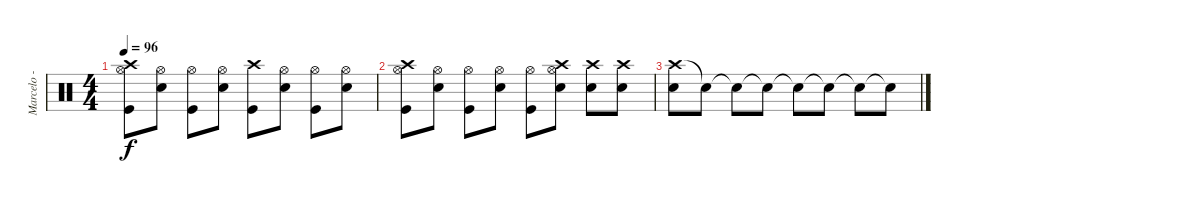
\track ("Marcelo - Percusión" "Marcelo - ") {instrument percussion}
\staff {score}
\articulation defaults
\ts (4 4)
\tempo 96
\clef neutral
\ks c
("Crash high (hit)" "Hi-Hat (open)" "Kick (hit)").8{dy f} ("Hi-Hat (open)" "Electric Snare (hit)").8 ("Hi-Hat (open)" "Kick (hit)").8 ("Hi-Hat (open)" "Electric Snare (hit)").8 ("Crash high (hit)" "Kick (hit)").8 ("Hi-Hat (open)" "Electric Snare (hit)").8 ("Hi-Hat (open)" "Kick (hit)").8 ("Hi-Hat (open)" "Electric Snare (hit)").8 |
("Crash high (hit)" "Hi-Hat (open)" "Kick (hit)").8 ("Hi-Hat (open)" "Electric Snare (hit)").8 ("Hi-Hat (open)" "Kick (hit)").8 ("Hi-Hat (open)" "Electric Snare (hit)").8 ("Hi-Hat (open)" "Kick (hit)").8 ("Crash high (hit)" "Hi-Hat (open)" "Electric Snare (hit)").8 ("Crash high (hit)" "Electric Snare (hit)").8 ("Crash high (hit)" "Electric Snare (hit)").8 |
("Crash high (hit)" "Electric Snare (hit)").8 "Snare (hit)"{t}.8 "Snare (hit)"{t}.8 "Snare (hit)"{t}.8 "Snare (hit)"{t}.8 "Snare (hit)"{t}.8 "Snare (hit)"{t}.8 "Snare (hit)"{t}.8
